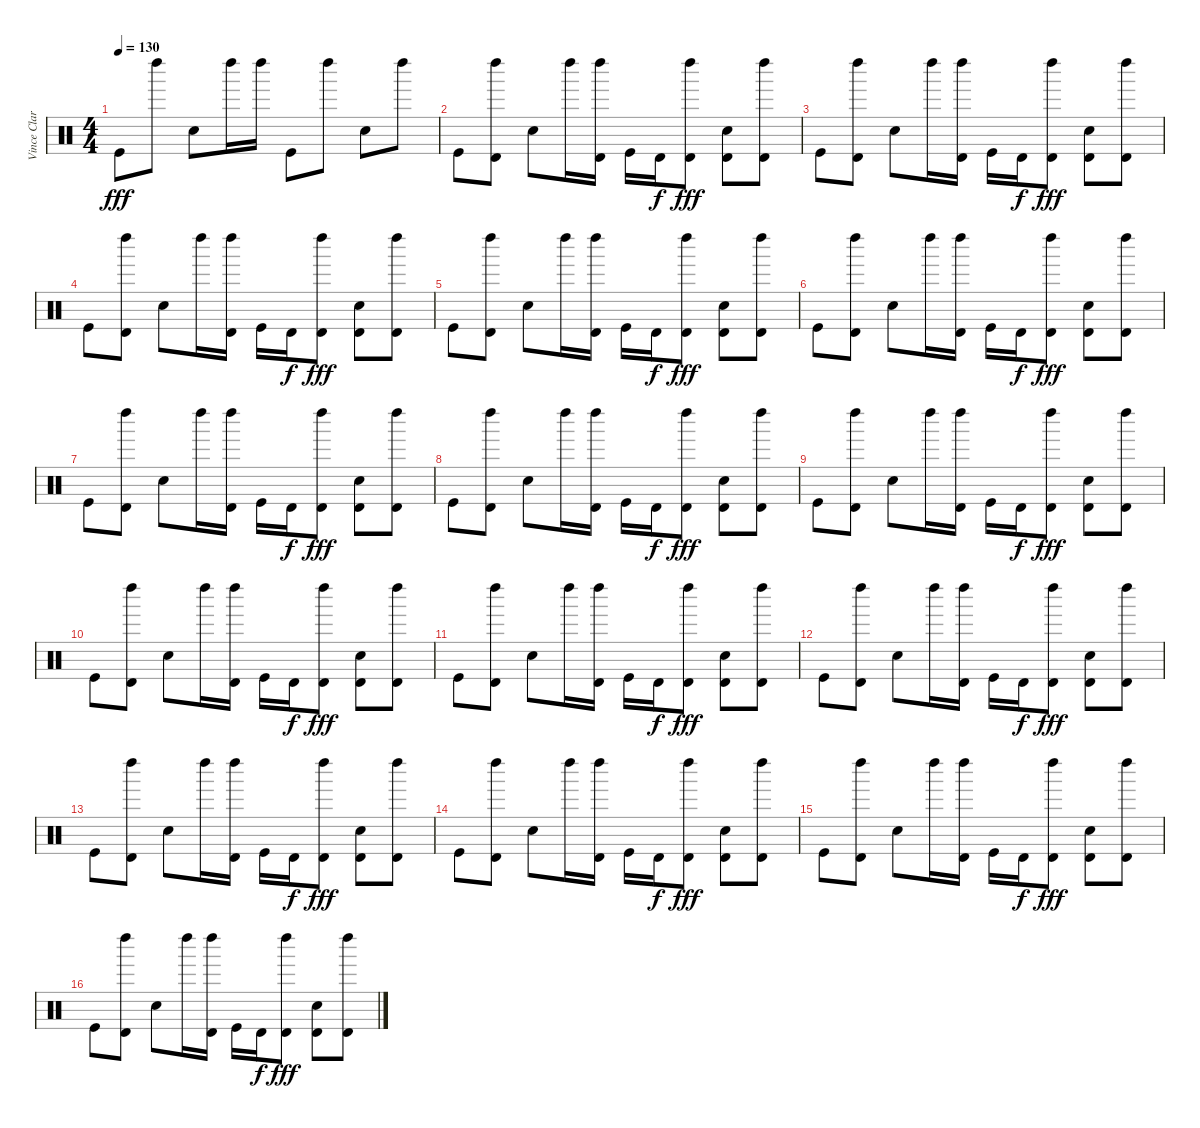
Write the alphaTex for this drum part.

\track ("Vince Clarke" "Vince Clar") {instrument percussion}
\staff {score}
\articulation defaults
\ts (4 4)
\tempo 130
\clef neutral
\ks c "Kick (hit)".8{dy fff} "Left Maraca (hit)".8 "Snare (hit) 2".8 "Left Maraca (hit)".16 "Left Maraca (hit)".16 "Kick (hit)".8 "Left Maraca (hit)".8 "Snare (hit) 2".8 "Left Maraca (hit)".8
|
"Kick (hit)".8 ("Left Maraca (hit)" "Timbale high (hit)").8 "Snare (hit) 2".8 "Left Maraca (hit)".16 ("Left Maraca (hit)" "Timbale high (hit)").16 "Kick (hit)".16 "Timbale high (hit)".16{dy f} ("Left Maraca (hit)" "Timbale high (hit)").8{dy fff} ("Snare (hit) 2" "Timbale high (hit)").8 ("Left Maraca (hit)" "Timbale high (hit)").8 |
"Kick (hit)".8 ("Left Maraca (hit)" "Timbale high (hit)").8 "Snare (hit) 2".8 "Left Maraca (hit)".16 ("Left Maraca (hit)" "Timbale high (hit)").16 "Kick (hit)".16 "Timbale high (hit)".16{dy f} ("Left Maraca (hit)" "Timbale high (hit)").8{dy fff} ("Snare (hit) 2" "Timbale high (hit)").8 ("Left Maraca (hit)" "Timbale high (hit)").8 |
"Kick (hit)".8 ("Left Maraca (hit)" "Timbale high (hit)").8 "Snare (hit) 2".8 "Left Maraca (hit)".16 ("Left Maraca (hit)" "Timbale high (hit)").16 "Kick (hit)".16 "Timbale high (hit)".16{dy f} ("Left Maraca (hit)" "Timbale high (hit)").8{dy fff} ("Snare (hit) 2" "Timbale high (hit)").8 ("Left Maraca (hit)" "Timbale high (hit)").8 |
"Kick (hit)".8 ("Left Maraca (hit)" "Timbale high (hit)").8 "Snare (hit) 2".8 "Left Maraca (hit)".16 ("Left Maraca (hit)" "Timbale high (hit)").16 "Kick (hit)".16 "Timbale high (hit)".16{dy f} ("Left Maraca (hit)" "Timbale high (hit)").8{dy fff} ("Snare (hit) 2" "Timbale high (hit)").8 ("Left Maraca (hit)" "Timbale high (hit)").8 |
"Kick (hit)".8 ("Left Maraca (hit)" "Timbale high (hit)").8 "Snare (hit) 2".8 "Left Maraca (hit)".16 ("Left Maraca (hit)" "Timbale high (hit)").16 "Kick (hit)".16 "Timbale high (hit)".16{dy f} ("Left Maraca (hit)" "Timbale high (hit)").8{dy fff} ("Snare (hit) 2" "Timbale high (hit)").8 ("Left Maraca (hit)" "Timbale high (hit)").8 |
"Kick (hit)".8 ("Left Maraca (hit)" "Timbale high (hit)").8 "Snare (hit) 2".8 "Left Maraca (hit)".16 ("Left Maraca (hit)" "Timbale high (hit)").16 "Kick (hit)".16 "Timbale high (hit)".16{dy f} ("Left Maraca (hit)" "Timbale high (hit)").8{dy fff} ("Snare (hit) 2" "Timbale high (hit)").8 ("Left Maraca (hit)" "Timbale high (hit)").8 |
"Kick (hit)".8 ("Left Maraca (hit)" "Timbale high (hit)").8 "Snare (hit) 2".8 "Left Maraca (hit)".16 ("Left Maraca (hit)" "Timbale high (hit)").16 "Kick (hit)".16 "Timbale high (hit)".16{dy f} ("Left Maraca (hit)" "Timbale high (hit)").8{dy fff} ("Snare (hit) 2" "Timbale high (hit)").8 ("Left Maraca (hit)" "Timbale high (hit)").8 |
"Kick (hit)".8 ("Left Maraca (hit)" "Timbale high (hit)").8 "Snare (hit) 2".8 "Left Maraca (hit)".16 ("Left Maraca (hit)" "Timbale high (hit)").16 "Kick (hit)".16 "Timbale high (hit)".16{dy f} ("Left Maraca (hit)" "Timbale high (hit)").8{dy fff} ("Snare (hit) 2" "Timbale high (hit)").8 ("Left Maraca (hit)" "Timbale high (hit)").8 |
"Kick (hit)".8 ("Left Maraca (hit)" "Timbale high (hit)").8 "Snare (hit) 2".8 "Left Maraca (hit)".16 ("Left Maraca (hit)" "Timbale high (hit)").16 "Kick (hit)".16 "Timbale high (hit)".16{dy f} ("Left Maraca (hit)" "Timbale high (hit)").8{dy fff} ("Snare (hit) 2" "Timbale high (hit)").8 ("Left Maraca (hit)" "Timbale high (hit)").8 |
"Kick (hit)".8 ("Left Maraca (hit)" "Timbale high (hit)").8 "Snare (hit) 2".8 "Left Maraca (hit)".16 ("Left Maraca (hit)" "Timbale high (hit)").16 "Kick (hit)".16 "Timbale high (hit)".16{dy f} ("Left Maraca (hit)" "Timbale high (hit)").8{dy fff} ("Snare (hit) 2" "Timbale high (hit)").8 ("Left Maraca (hit)" "Timbale high (hit)").8 |
"Kick (hit)".8 ("Left Maraca (hit)" "Timbale high (hit)").8 "Snare (hit) 2".8 "Left Maraca (hit)".16 ("Left Maraca (hit)" "Timbale high (hit)").16 "Kick (hit)".16 "Timbale high (hit)".16{dy f} ("Left Maraca (hit)" "Timbale high (hit)").8{dy fff} ("Snare (hit) 2" "Timbale high (hit)").8 ("Left Maraca (hit)" "Timbale high (hit)").8 |
"Kick (hit)".8 ("Left Maraca (hit)" "Timbale high (hit)").8 "Snare (hit) 2".8 "Left Maraca (hit)".16 ("Left Maraca (hit)" "Timbale high (hit)").16 "Kick (hit)".16 "Timbale high (hit)".16{dy f} ("Left Maraca (hit)" "Timbale high (hit)").8{dy fff} ("Snare (hit) 2" "Timbale high (hit)").8 ("Left Maraca (hit)" "Timbale high (hit)").8 |
"Kick (hit)".8 ("Left Maraca (hit)" "Timbale high (hit)").8 "Snare (hit) 2".8 "Left Maraca (hit)".16 ("Left Maraca (hit)" "Timbale high (hit)").16 "Kick (hit)".16 "Timbale high (hit)".16{dy f} ("Left Maraca (hit)" "Timbale high (hit)").8{dy fff} ("Snare (hit) 2" "Timbale high (hit)").8 ("Left Maraca (hit)" "Timbale high (hit)").8 |
"Kick (hit)".8 ("Left Maraca (hit)" "Timbale high (hit)").8 "Snare (hit) 2".8 "Left Maraca (hit)".16 ("Left Maraca (hit)" "Timbale high (hit)").16 "Kick (hit)".16 "Timbale high (hit)".16{dy f} ("Left Maraca (hit)" "Timbale high (hit)").8{dy fff} ("Snare (hit) 2" "Timbale high (hit)").8 ("Left Maraca (hit)" "Timbale high (hit)").8 |
"Kick (hit)".8 ("Left Maraca (hit)" "Timbale high (hit)").8 "Snare (hit) 2".8 "Left Maraca (hit)".16 ("Left Maraca (hit)" "Timbale high (hit)").16 "Kick (hit)".16 "Timbale high (hit)".16{dy f} ("Left Maraca (hit)" "Timbale high (hit)").8{dy fff} ("Snare (hit) 2" "Timbale high (hit)").8 ("Left Maraca (hit)" "Timbale high (hit)").8
